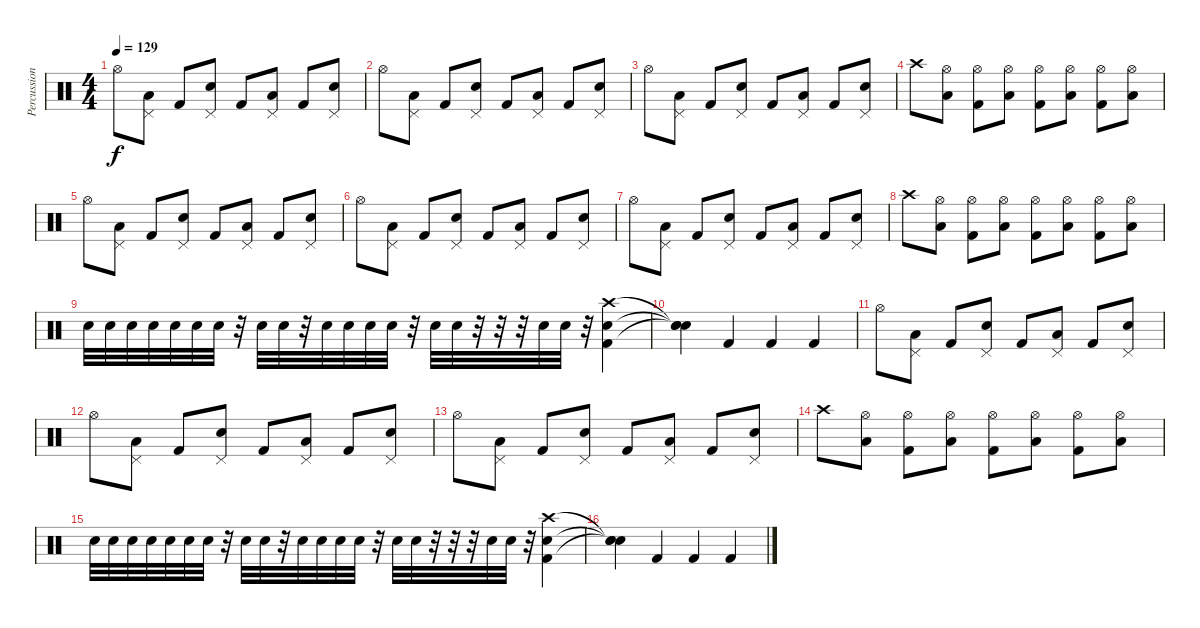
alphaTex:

\track ("Percussion" "Percussion") {instrument percussion}
\staff {score}
\articulation defaults
\ts (4 4)
\tempo 129
\clef neutral
\ks c "Hi-Hat (open)".8{dy f}
("Pedal Hi-Hat (hit)" "Low Tom (hit)").8 "Kick (hit) 2".8 ("Pedal Hi-Hat (hit)" "Electric Snare (hit)").8 "Kick (hit) 2".8 ("Pedal Hi-Hat (hit)" "Low Tom (hit)").8 "Kick (hit) 2".8 ("Pedal Hi-Hat (hit)" "Electric Snare (hit)").8 |
"Hi-Hat (open)".8 ("Pedal Hi-Hat (hit)" "Low Tom (hit)").8 "Kick (hit) 2".8 ("Pedal Hi-Hat (hit)" "Electric Snare (hit)").8 "Kick (hit) 2".8 ("Pedal Hi-Hat (hit)" "Low Tom (hit)").8 "Kick (hit) 2".8 ("Pedal Hi-Hat (hit)" "Electric Snare (hit)").8 |
"Hi-Hat (open)".8 ("Pedal Hi-Hat (hit)" "Low Tom (hit)").8 "Kick (hit) 2".8 ("Pedal Hi-Hat (hit)" "Electric Snare (hit)").8 "Kick (hit) 2".8 ("Pedal Hi-Hat (hit)" "Low Tom (hit)").8 "Kick (hit) 2".8 ("Pedal Hi-Hat (hit)" "Electric Snare (hit)").8 |
"Crash high (hit)".8 ("Hi-Hat (open)" "Low Tom (hit)").8 ("Hi-Hat (open)" "Kick (hit) 2").8 ("Hi-Hat (open)" "Low Tom (hit)").8 ("Hi-Hat (open)" "Kick (hit) 2").8 ("Hi-Hat (open)" "Low Tom (hit)").8 ("Hi-Hat (open)" "Kick (hit) 2").8 ("Hi-Hat (open)" "Low Tom (hit)").8 |
"Hi-Hat (open)".8 ("Pedal Hi-Hat (hit)" "Low Tom (hit)").8 "Kick (hit) 2".8 ("Pedal Hi-Hat (hit)" "Electric Snare (hit)").8 "Kick (hit) 2".8 ("Pedal Hi-Hat (hit)" "Low Tom (hit)").8 "Kick (hit) 2".8 ("Pedal Hi-Hat (hit)" "Electric Snare (hit)").8 |
"Hi-Hat (open)".8 ("Pedal Hi-Hat (hit)" "Low Tom (hit)").8 "Kick (hit) 2".8 ("Pedal Hi-Hat (hit)" "Electric Snare (hit)").8 "Kick (hit) 2".8 ("Pedal Hi-Hat (hit)" "Low Tom (hit)").8 "Kick (hit) 2".8 ("Pedal Hi-Hat (hit)" "Electric Snare (hit)").8 |
"Hi-Hat (open)".8 ("Pedal Hi-Hat (hit)" "Low Tom (hit)").8 "Kick (hit) 2".8 ("Pedal Hi-Hat (hit)" "Electric Snare (hit)").8 "Kick (hit) 2".8 ("Pedal Hi-Hat (hit)" "Low Tom (hit)").8 "Kick (hit) 2".8 ("Pedal Hi-Hat (hit)" "Electric Snare (hit)").8 |
"Crash high (hit)".8 ("Hi-Hat (open)" "Low Tom (hit)").8 ("Hi-Hat (open)" "Kick (hit) 2").8 ("Hi-Hat (open)" "Low Tom (hit)").8 ("Hi-Hat (open)" "Kick (hit) 2").8 ("Hi-Hat (open)" "Low Tom (hit)").8 ("Hi-Hat (open)" "Kick (hit) 2").8 ("Hi-Hat (open)" "Low Tom (hit)").8 |
"Electric Snare (hit)".32 "Electric Snare (hit)".32 "Electric Snare (hit)".32 "Electric Snare (hit)".32 "Electric Snare (hit)".32 "Electric Snare (hit)".32 "Electric Snare (hit)".32 r.32 "Electric Snare (hit)".32 "Electric Snare (hit)".32 r.32 "Electric Snare (hit)".32 "Electric Snare (hit)".32 "Electric Snare (hit)".32 "Electric Snare (hit)".32 r.32 "Electric Snare (hit)".32 "Electric Snare (hit)".32 r.32 r.32 r.32 "Electric Snare (hit)".32 "Electric Snare (hit)".32 r.32 ("Crash high (hit)" "Electric Snare (hit)" "Kick (hit) 2").4 |
("Snare (hit)"{t} "Snare (hit)"{t} "Snare (hit)"{t}).4 "Kick (hit) 2".4 "Kick (hit) 2".4 "Kick (hit) 2".4 |
"Hi-Hat (open)".8 ("Pedal Hi-Hat (hit)" "Low Tom (hit)").8 "Kick (hit) 2".8 ("Pedal Hi-Hat (hit)" "Electric Snare (hit)").8 "Kick (hit) 2".8 ("Pedal Hi-Hat (hit)" "Low Tom (hit)").8 "Kick (hit) 2".8 ("Pedal Hi-Hat (hit)" "Electric Snare (hit)").8 |
"Hi-Hat (open)".8 ("Pedal Hi-Hat (hit)" "Low Tom (hit)").8 "Kick (hit) 2".8 ("Pedal Hi-Hat (hit)" "Electric Snare (hit)").8 "Kick (hit) 2".8 ("Pedal Hi-Hat (hit)" "Low Tom (hit)").8 "Kick (hit) 2".8 ("Pedal Hi-Hat (hit)" "Electric Snare (hit)").8 |
"Hi-Hat (open)".8 ("Pedal Hi-Hat (hit)" "Low Tom (hit)").8 "Kick (hit) 2".8 ("Pedal Hi-Hat (hit)" "Electric Snare (hit)").8 "Kick (hit) 2".8 ("Pedal Hi-Hat (hit)" "Low Tom (hit)").8 "Kick (hit) 2".8 ("Pedal Hi-Hat (hit)" "Electric Snare (hit)").8 |
"Crash high (hit)".8 ("Hi-Hat (open)" "Low Tom (hit)").8 ("Hi-Hat (open)" "Kick (hit) 2").8 ("Hi-Hat (open)" "Low Tom (hit)").8 ("Hi-Hat (open)" "Kick (hit) 2").8 ("Hi-Hat (open)" "Low Tom (hit)").8 ("Hi-Hat (open)" "Kick (hit) 2").8 ("Hi-Hat (open)" "Low Tom (hit)").8 |
"Electric Snare (hit)".32 "Electric Snare (hit)".32 "Electric Snare (hit)".32 "Electric Snare (hit)".32 "Electric Snare (hit)".32 "Electric Snare (hit)".32 "Electric Snare (hit)".32 r.32 "Electric Snare (hit)".32 "Electric Snare (hit)".32 r.32 "Electric Snare (hit)".32 "Electric Snare (hit)".32 "Electric Snare (hit)".32 "Electric Snare (hit)".32 r.32 "Electric Snare (hit)".32 "Electric Snare (hit)".32 r.32 r.32 r.32 "Electric Snare (hit)".32 "Electric Snare (hit)".32 r.32 ("Crash high (hit)" "Electric Snare (hit)" "Kick (hit) 2").4 |
("Snare (hit)"{t} "Snare (hit)"{t} "Snare (hit)"{t}).4 "Kick (hit) 2".4 "Kick (hit) 2".4 "Kick (hit) 2".4
